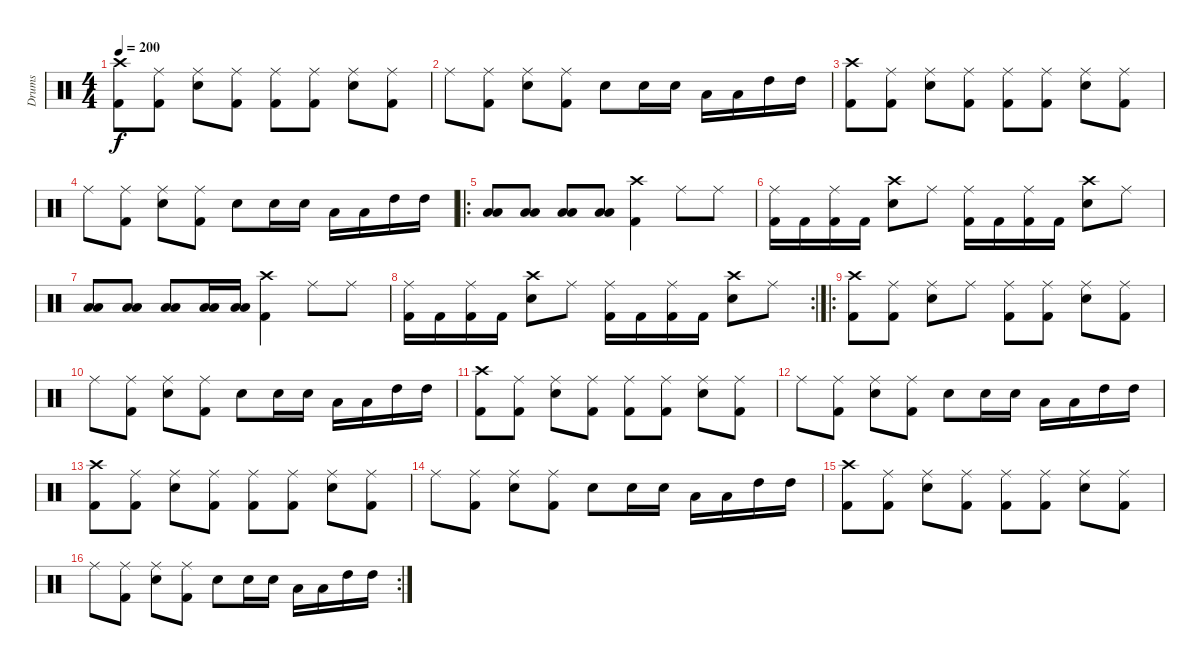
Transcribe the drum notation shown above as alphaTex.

\track ("Drums" "Drums") {instrument percussion}
\staff {score}
\articulation defaults
\ts (4 4)
\tempo 200
\clef neutral
\ks c
("Kick (hit) 2" "Crash high (hit)").8{dy f} ("Kick (hit) 2" "Ride (middle)").8 ("Snare (hit) 2" "Ride (middle)").8 ("Kick (hit) 2" "Ride (middle)").8 ("Kick (hit) 2" "Ride (middle)").8 ("Kick (hit) 2" "Ride (middle)").8 ("Snare (hit) 2" "Ride (middle)").8 ("Kick (hit) 2" "Ride (middle)").8 |
"Ride (middle)".8 ("Kick (hit) 2" "Ride (middle)").8 ("Snare (hit) 2" "Ride (middle)").8 ("Kick (hit) 2" "Ride (middle)").8 "Snare (hit) 2".8 "Snare (hit) 2".16 "Snare (hit) 2".16 "Low Tom (hit)".16 "Low Tom (hit)".16 "High Tom (hit)".16 "High Tom (hit)".16 |
("Kick (hit) 2" "Crash high (hit)").8 ("Kick (hit) 2" "Ride (middle)").8 ("Snare (hit) 2" "Ride (middle)").8 ("Kick (hit) 2" "Ride (middle)").8 ("Kick (hit) 2" "Ride (middle)").8 ("Kick (hit) 2" "Ride (middle)").8 ("Snare (hit) 2" "Ride (middle)").8 ("Kick (hit) 2" "Ride (middle)").8 |
"Ride (middle)".8 ("Kick (hit) 2" "Ride (middle)").8 ("Snare (hit) 2" "Ride (middle)").8 ("Kick (hit) 2" "Ride (middle)").8 "Snare (hit) 2".8 "Snare (hit) 2".16 "Snare (hit) 2".16 "Low Tom (hit)".16 "Low Tom (hit)".16 "High Tom (hit)".16 "High Tom (hit)".16 |
\ro
("Low Tom (hit)" "Low Tom (hit)").8 ("Low Tom (hit)" "Low Tom (hit)").8 ("Low Tom (hit)" "Low Tom (hit)").8 ("Low Tom (hit)" "Low Tom (hit)").8 ("Kick (hit) 2" "Crash high (hit)").4 "Ride (middle)".8 "Ride (middle)".8 |
("Kick (hit) 2" "Ride (middle)").16 "Kick (hit) 2".16 ("Kick (hit) 2" "Ride (middle)").16 "Kick (hit) 2".16 ("Snare (hit) 2" "Crash high (hit)").8 "Ride (middle)".8 ("Kick (hit) 2" "Ride (middle)").16 "Kick (hit) 2".16 ("Kick (hit) 2" "Ride (middle)").16 "Kick (hit) 2".16 ("Snare (hit) 2" "Crash high (hit)").8 "Ride (middle)".8 |
("Low Tom (hit)" "Low Tom (hit)").8 ("Low Tom (hit)" "Low Tom (hit)").8 ("Low Tom (hit)" "Low Tom (hit)").8 ("Low Tom (hit)" "Low Tom (hit)").16 ("Low Tom (hit)" "Low Tom (hit)").16 ("Kick (hit) 2" "Crash high (hit)").4 "Ride (middle)".8 "Ride (middle)".8 |
\rc 2
("Kick (hit) 2" "Ride (middle)").16 "Kick (hit) 2".16 ("Kick (hit) 2" "Ride (middle)").16 "Kick (hit) 2".16 ("Snare (hit) 2" "Crash high (hit)").8 "Ride (middle)".8 ("Kick (hit) 2" "Ride (middle)").16 "Kick (hit) 2".16 ("Kick (hit) 2" "Ride (middle)").16 "Kick (hit) 2".16 ("Snare (hit) 2" "Crash high (hit)").8 "Ride (middle)".8 |
\ro
("Kick (hit) 2" "Crash high (hit)").8 ("Kick (hit) 2" "Ride (middle)").8 ("Snare (hit) 2" "Ride (middle)").8 "Ride (middle)".8 ("Kick (hit) 2" "Ride (middle)").8 ("Kick (hit) 2" "Ride (middle)").8 ("Snare (hit) 2" "Ride (middle)").8 ("Kick (hit) 2" "Ride (middle)").8 |
"Ride (middle)".8 ("Kick (hit) 2" "Ride (middle)").8 ("Snare (hit) 2" "Ride (middle)").8 ("Kick (hit) 2" "Ride (middle)").8 "Snare (hit) 2".8 "Snare (hit) 2".16 "Snare (hit) 2".16 "Low Tom (hit)".16 "Low Tom (hit)".16 "High Tom (hit)".16 "High Tom (hit)".16 |
("Kick (hit) 2" "Crash high (hit)").8 ("Kick (hit) 2" "Ride (middle)").8 ("Snare (hit) 2" "Ride (middle)").8 ("Kick (hit) 2" "Ride (middle)").8 ("Kick (hit) 2" "Ride (middle)").8 ("Kick (hit) 2" "Ride (middle)").8 ("Snare (hit) 2" "Ride (middle)").8 ("Kick (hit) 2" "Ride (middle)").8 |
"Ride (middle)".8 ("Kick (hit) 2" "Ride (middle)").8 ("Snare (hit) 2" "Ride (middle)").8 ("Kick (hit) 2" "Ride (middle)").8 "Snare (hit) 2".8 "Snare (hit) 2".16 "Snare (hit) 2".16 "Low Tom (hit)".16 "Low Tom (hit)".16 "High Tom (hit)".16 "High Tom (hit)".16 |
("Kick (hit) 2" "Crash high (hit)").8 ("Kick (hit) 2" "Ride (middle)").8 ("Snare (hit) 2" "Ride (middle)").8 ("Kick (hit) 2" "Ride (middle)").8 ("Kick (hit) 2" "Ride (middle)").8 ("Kick (hit) 2" "Ride (middle)").8 ("Snare (hit) 2" "Ride (middle)").8 ("Kick (hit) 2" "Ride (middle)").8 |
"Ride (middle)".8 ("Kick (hit) 2" "Ride (middle)").8 ("Snare (hit) 2" "Ride (middle)").8 ("Kick (hit) 2" "Ride (middle)").8 "Snare (hit) 2".8 "Snare (hit) 2".16 "Snare (hit) 2".16 "Low Tom (hit)".16 "Low Tom (hit)".16 "High Tom (hit)".16 "High Tom (hit)".16 |
("Kick (hit) 2" "Crash high (hit)").8 ("Kick (hit) 2" "Ride (middle)").8 ("Snare (hit) 2" "Ride (middle)").8 ("Kick (hit) 2" "Ride (middle)").8 ("Kick (hit) 2" "Ride (middle)").8 ("Kick (hit) 2" "Ride (middle)").8 ("Snare (hit) 2" "Ride (middle)").8 ("Kick (hit) 2" "Ride (middle)").8 |
\rc 2 "Ride (middle)".8
("Kick (hit) 2" "Ride (middle)").8 ("Snare (hit) 2" "Ride (middle)").8 ("Kick (hit) 2" "Ride (middle)").8 "Snare (hit) 2".8 "Snare (hit) 2".16 "Snare (hit) 2".16 "Low Tom (hit)".16 "Low Tom (hit)".16 "High Tom (hit)".16 "High Tom (hit)".16
